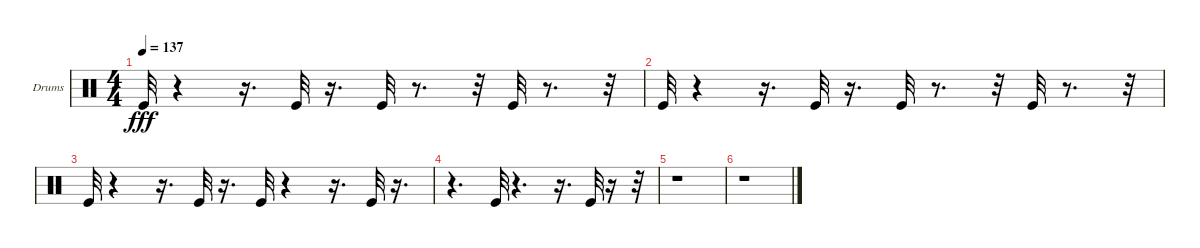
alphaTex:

\bracketExtendMode groupsimilarinstruments
\firstSystemTrackNameOrientation horizontal
\otherSystemsTrackNameOrientation horizontal
\track ("Drumkit" "Drums") {instrument percussion}
\staff {score}
\articulation defaults
\ts (4 4)
\tempo 137
\clef neutral
\ks c "Kick (hit)".32{dy fff}
r.4 r.16{d} "Kick (hit)".32 r.16{d} "Kick (hit)".32 r.8{d} r.32 "Kick (hit)".32 r.8{d} r.32 |
"Kick (hit)".32 r.4 r.16{d} "Kick (hit)".32 r.16{d} "Kick (hit)".32 r.8{d} r.32 "Kick (hit)".32 r.8{d} r.32 |
"Kick (hit)".32 r.4 r.16{d} "Kick (hit)".32 r.16{d} "Kick (hit)".32 r.4 r.16{d} "Kick (hit)".32 r.16{d} |
r.4{d} "Kick (hit)".32 r.4{d} r.16{d} "Kick (hit)".32 r.16 r.32 |
r.1 |
r.1
